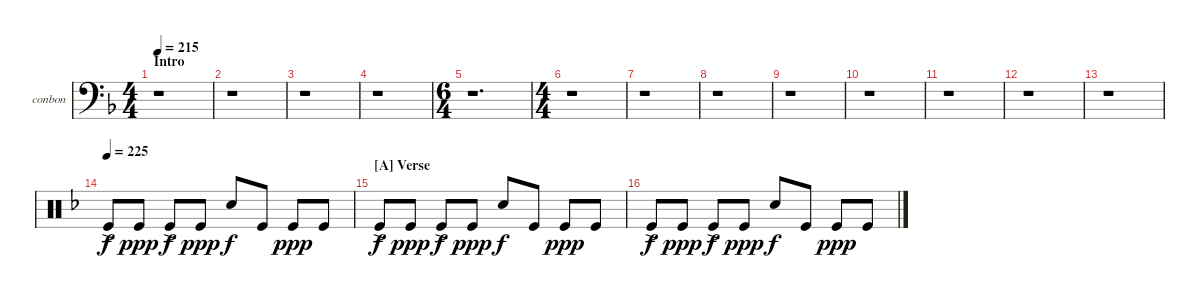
\defaultSystemsLayout 4
\bracketExtendMode groupsimilarinstruments
\firstSystemTrackNameOrientation horizontal
\otherSystemsTrackNameOrientation horizontal
\track ("Bongos N Congas" "conbon") {instrument percussion}
\staff {score}
\articulation defaults
\ts (4 4)
\section ("" "Intro")
\tempo 215
\clef f4
\scale
0.474178
\ks dminor
r.1{dy f} |
\scale
0.262911 r.1 |
\scale
0.262911 r.1 |
\scale
0.217054 r.1 |
\ts (6 4)
\scale
0.391473 r.1{d} |
\ts (4 4)
\scale
0.391473 r.1 |
\scale
0.333333 r.1 |
\scale
0.333333 r.1 |
\scale
0.333333 r.1 |
\scale
0.333333 r.1 |
\scale
0.333333 r.1 |
\scale
0.333333 r.1 |
\scale
0.333333 r.1 |
\tempo 225
\clef neutral
\scale
0.333333 "Kick (hit)"{ac}.8 "Kick (hit)".8{dy ppp} "Kick (hit)"{ac}.8{dy f} "Kick (hit)".8{dy ppp} "Snare (hit) 2".8{dy f} "Kick (hit)".8 "Kick (hit)".8{dy ppp} "Kick (hit)".8 |
\section ("A" "Verse")
\scale
0.333333 "Kick (hit)"{ac}.8{dy f} "Kick (hit)".8{dy ppp} "Kick (hit)"{ac}.8{dy f} "Kick (hit)".8{dy ppp} "Snare (hit) 2".8{dy f} "Kick (hit)".8 "Kick (hit)".8{dy ppp} "Kick (hit)".8 |
\scale
0.333333 "Kick (hit)"{ac}.8{dy f} "Kick (hit)".8{dy ppp} "Kick (hit)"{ac}.8{dy f} "Kick (hit)".8{dy ppp} "Snare (hit) 2".8{dy f} "Kick (hit)".8 "Kick (hit)".8{dy ppp} "Kick (hit)".8
